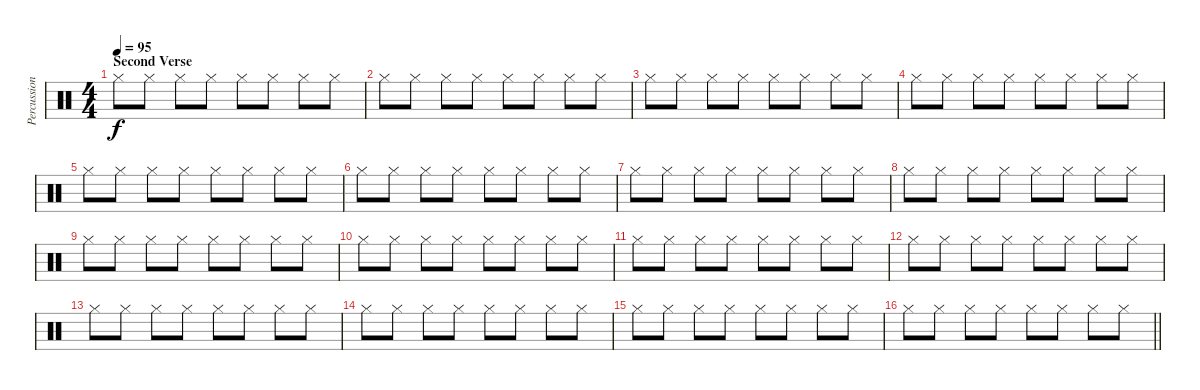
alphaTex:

\track ("Percussioni" "Percussion") {instrument percussion}
\staff {score}
\articulation defaults
\ts (4 4)
\section ("" "Second Verse")
\tempo 95
\clef neutral
\ks c "Hi-Hat (closed)".8{dy f} "Hi-Hat (closed)".8 "Hi-Hat (closed)".8 "Hi-Hat (closed)".8 "Hi-Hat (closed)".8 "Hi-Hat (closed)".8 "Hi-Hat (closed)".8 "Hi-Hat (closed)".8
|
"Hi-Hat (closed)".8 "Hi-Hat (closed)".8 "Hi-Hat (closed)".8 "Hi-Hat (closed)".8 "Hi-Hat (closed)".8 "Hi-Hat (closed)".8 "Hi-Hat (closed)".8 "Hi-Hat (closed)".8 |
"Hi-Hat (closed)".8 "Hi-Hat (closed)".8 "Hi-Hat (closed)".8 "Hi-Hat (closed)".8 "Hi-Hat (closed)".8 "Hi-Hat (closed)".8 "Hi-Hat (closed)".8 "Hi-Hat (closed)".8 |
"Hi-Hat (closed)".8 "Hi-Hat (closed)".8 "Hi-Hat (closed)".8 "Hi-Hat (closed)".8 "Hi-Hat (closed)".8 "Hi-Hat (closed)".8 "Hi-Hat (closed)".8 "Hi-Hat (closed)".8 |
"Hi-Hat (closed)".8 "Hi-Hat (closed)".8 "Hi-Hat (closed)".8 "Hi-Hat (closed)".8 "Hi-Hat (closed)".8 "Hi-Hat (closed)".8 "Hi-Hat (closed)".8 "Hi-Hat (closed)".8 |
"Hi-Hat (closed)".8 "Hi-Hat (closed)".8 "Hi-Hat (closed)".8 "Hi-Hat (closed)".8 "Hi-Hat (closed)".8 "Hi-Hat (closed)".8 "Hi-Hat (closed)".8 "Hi-Hat (closed)".8 |
"Hi-Hat (closed)".8 "Hi-Hat (closed)".8 "Hi-Hat (closed)".8 "Hi-Hat (closed)".8 "Hi-Hat (closed)".8 "Hi-Hat (closed)".8 "Hi-Hat (closed)".8 "Hi-Hat (closed)".8 |
"Hi-Hat (closed)".8 "Hi-Hat (closed)".8 "Hi-Hat (closed)".8 "Hi-Hat (closed)".8 "Hi-Hat (closed)".8 "Hi-Hat (closed)".8 "Hi-Hat (closed)".8 "Hi-Hat (closed)".8 |
"Hi-Hat (closed)".8 "Hi-Hat (closed)".8 "Hi-Hat (closed)".8 "Hi-Hat (closed)".8 "Hi-Hat (closed)".8 "Hi-Hat (closed)".8 "Hi-Hat (closed)".8 "Hi-Hat (closed)".8 |
"Hi-Hat (closed)".8 "Hi-Hat (closed)".8 "Hi-Hat (closed)".8 "Hi-Hat (closed)".8 "Hi-Hat (closed)".8 "Hi-Hat (closed)".8 "Hi-Hat (closed)".8 "Hi-Hat (closed)".8 |
"Hi-Hat (closed)".8 "Hi-Hat (closed)".8 "Hi-Hat (closed)".8 "Hi-Hat (closed)".8 "Hi-Hat (closed)".8 "Hi-Hat (closed)".8 "Hi-Hat (closed)".8 "Hi-Hat (closed)".8 |
"Hi-Hat (closed)".8 "Hi-Hat (closed)".8 "Hi-Hat (closed)".8 "Hi-Hat (closed)".8 "Hi-Hat (closed)".8 "Hi-Hat (closed)".8 "Hi-Hat (closed)".8 "Hi-Hat (closed)".8 |
"Hi-Hat (closed)".8 "Hi-Hat (closed)".8 "Hi-Hat (closed)".8 "Hi-Hat (closed)".8 "Hi-Hat (closed)".8 "Hi-Hat (closed)".8 "Hi-Hat (closed)".8 "Hi-Hat (closed)".8 |
"Hi-Hat (closed)".8 "Hi-Hat (closed)".8 "Hi-Hat (closed)".8 "Hi-Hat (closed)".8 "Hi-Hat (closed)".8 "Hi-Hat (closed)".8 "Hi-Hat (closed)".8 "Hi-Hat (closed)".8 |
"Hi-Hat (closed)".8 "Hi-Hat (closed)".8 "Hi-Hat (closed)".8 "Hi-Hat (closed)".8 "Hi-Hat (closed)".8 "Hi-Hat (closed)".8 "Hi-Hat (closed)".8 "Hi-Hat (closed)".8 |
\barLineRight lightlight "Hi-Hat (closed)".8 "Hi-Hat (closed)".8 "Hi-Hat (closed)".8 "Hi-Hat (closed)".8 "Hi-Hat (closed)".8 "Hi-Hat (closed)".8 "Hi-Hat (closed)".8 "Hi-Hat (closed)".8
